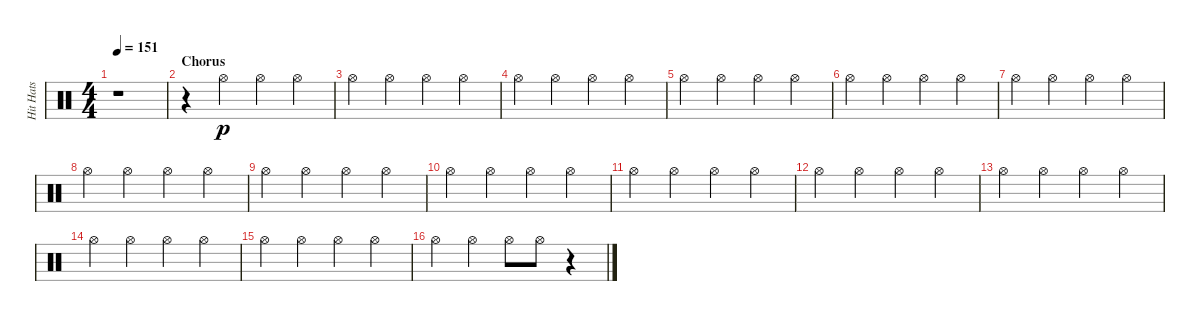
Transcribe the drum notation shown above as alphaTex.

\track ("Hit Hats" "Hit Hats") {instrument percussion}
\staff {score}
\articulation defaults
\ts (4 4)
\tempo 151
\clef neutral
\ks c
r.1{dy p} |
\section ("" "Chorus")
r.4 "Hi-Hat (open)".4 "Hi-Hat (open)".4 "Hi-Hat (open)".4 |
"Hi-Hat (open)".4 "Hi-Hat (open)".4 "Hi-Hat (open)".4 "Hi-Hat (open)".4 |
"Hi-Hat (open)".4 "Hi-Hat (open)".4 "Hi-Hat (open)".4 "Hi-Hat (open)".4 |
"Hi-Hat (open)".4 "Hi-Hat (open)".4 "Hi-Hat (open)".4 "Hi-Hat (open)".4 |
"Hi-Hat (open)".4 "Hi-Hat (open)".4 "Hi-Hat (open)".4 "Hi-Hat (open)".4 |
"Hi-Hat (open)".4 "Hi-Hat (open)".4 "Hi-Hat (open)".4 "Hi-Hat (open)".4 |
"Hi-Hat (open)".4 "Hi-Hat (open)".4 "Hi-Hat (open)".4 "Hi-Hat (open)".4 |
"Hi-Hat (open)".4 "Hi-Hat (open)".4 "Hi-Hat (open)".4 "Hi-Hat (open)".4 |
"Hi-Hat (open)".4 "Hi-Hat (open)".4 "Hi-Hat (open)".4 "Hi-Hat (open)".4 |
"Hi-Hat (open)".4 "Hi-Hat (open)".4 "Hi-Hat (open)".4 "Hi-Hat (open)".4 |
"Hi-Hat (open)".4 "Hi-Hat (open)".4 "Hi-Hat (open)".4 "Hi-Hat (open)".4 |
"Hi-Hat (open)".4 "Hi-Hat (open)".4 "Hi-Hat (open)".4 "Hi-Hat (open)".4 |
"Hi-Hat (open)".4 "Hi-Hat (open)".4 "Hi-Hat (open)".4 "Hi-Hat (open)".4 |
"Hi-Hat (open)".4 "Hi-Hat (open)".4 "Hi-Hat (open)".4 "Hi-Hat (open)".4 |
"Hi-Hat (open)".4 "Hi-Hat (open)".4 "Hi-Hat (open)".8 "Hi-Hat (open)".8 r.4
